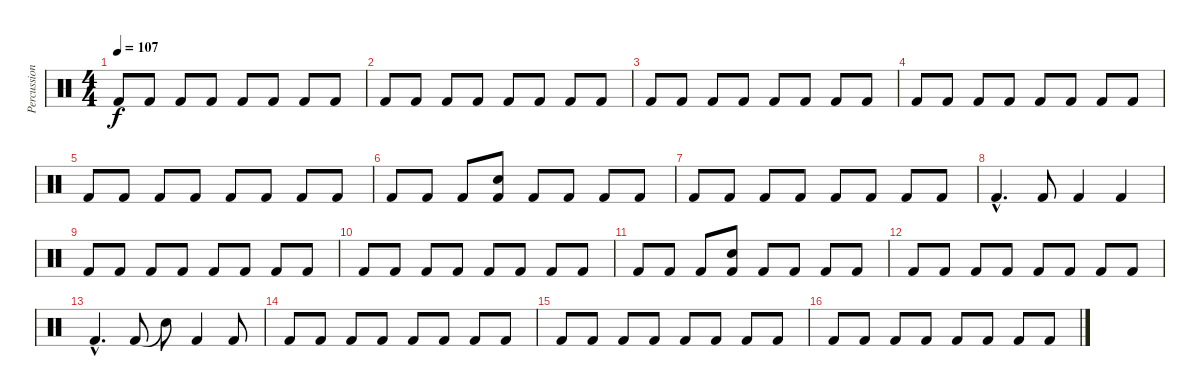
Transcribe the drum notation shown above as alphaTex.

\track ("Percussion" "Percussion") {instrument percussion}
\staff {score}
\articulation defaults
\ts (4 4)
\tempo 107
\clef neutral
\ks c "Kick (hit) 2".8{dy f} "Kick (hit) 2".8 "Kick (hit) 2".8 "Kick (hit) 2".8 "Kick (hit) 2".8 "Kick (hit) 2".8 "Kick (hit) 2".8 "Kick (hit) 2".8
|
"Kick (hit) 2".8 "Kick (hit) 2".8 "Kick (hit) 2".8 "Kick (hit) 2".8 "Kick (hit) 2".8 "Kick (hit) 2".8 "Kick (hit) 2".8 "Kick (hit) 2".8 |
"Kick (hit) 2".8 "Kick (hit) 2".8 "Kick (hit) 2".8 "Kick (hit) 2".8 "Kick (hit) 2".8 "Kick (hit) 2".8 "Kick (hit) 2".8 "Kick (hit) 2".8 |
"Kick (hit) 2".8 "Kick (hit) 2".8 "Kick (hit) 2".8 "Kick (hit) 2".8 "Kick (hit) 2".8 "Kick (hit) 2".8 "Kick (hit) 2".8 "Kick (hit) 2".8 |
"Kick (hit) 2".8 "Kick (hit) 2".8 "Kick (hit) 2".8 "Kick (hit) 2".8 "Kick (hit) 2".8 "Kick (hit) 2".8 "Kick (hit) 2".8 "Kick (hit) 2".8 |
"Kick (hit) 2".8 "Kick (hit) 2".8 "Kick (hit) 2".8 ("Electric Snare (hit)" "Kick (hit) 2").8 "Kick (hit) 2".8 "Kick (hit) 2".8 "Kick (hit) 2".8 "Kick (hit) 2".8 |
"Kick (hit) 2".8 "Kick (hit) 2".8 "Kick (hit) 2".8 "Kick (hit) 2".8 "Kick (hit) 2".8 "Kick (hit) 2".8 "Kick (hit) 2".8 "Kick (hit) 2".8 |
"Kick (hit) 2"{hac}.4{d} "Kick (hit) 2".8 "Kick (hit) 2".4 "Kick (hit) 2".4 |
"Kick (hit) 2".8 "Kick (hit) 2".8 "Kick (hit) 2".8 "Kick (hit) 2".8 "Kick (hit) 2".8 "Kick (hit) 2".8 "Kick (hit) 2".8 "Kick (hit) 2".8 |
"Kick (hit) 2".8 "Kick (hit) 2".8 "Kick (hit) 2".8 "Kick (hit) 2".8 "Kick (hit) 2".8 "Kick (hit) 2".8 "Kick (hit) 2".8 "Kick (hit) 2".8 |
"Kick (hit) 2".8 "Kick (hit) 2".8 "Kick (hit) 2".8 ("Electric Snare (hit)" "Kick (hit) 2").8 "Kick (hit) 2".8 "Kick (hit) 2".8 "Kick (hit) 2".8 "Kick (hit) 2".8 |
"Kick (hit) 2".8 "Kick (hit) 2".8 "Kick (hit) 2".8 "Kick (hit) 2".8 "Kick (hit) 2".8 "Kick (hit) 2".8 "Kick (hit) 2".8 "Kick (hit) 2".8 |
"Kick (hit) 2"{hac}.4{d} "Kick (hit) 2".8 "Snare (hit)"{t}.8 "Kick (hit) 2".4 "Kick (hit) 2".8 |
"Kick (hit) 2".8 "Kick (hit) 2".8 "Kick (hit) 2".8 "Kick (hit) 2".8 "Kick (hit) 2".8 "Kick (hit) 2".8 "Kick (hit) 2".8 "Kick (hit) 2".8 |
"Kick (hit) 2".8 "Kick (hit) 2".8 "Kick (hit) 2".8 "Kick (hit) 2".8 "Kick (hit) 2".8 "Kick (hit) 2".8 "Kick (hit) 2".8 "Kick (hit) 2".8 |
"Kick (hit) 2".8 "Kick (hit) 2".8 "Kick (hit) 2".8 "Kick (hit) 2".8 "Kick (hit) 2".8 "Kick (hit) 2".8 "Kick (hit) 2".8 "Kick (hit) 2".8
